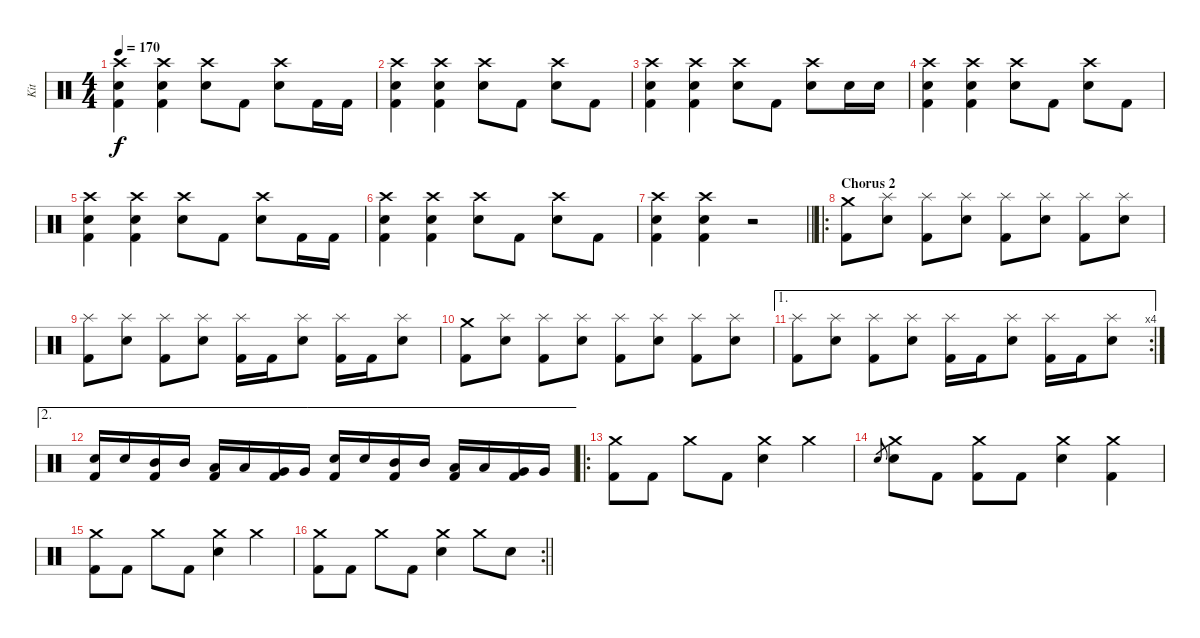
\track ("Kit" "Kit") {instrument percussion}
\staff {score}
\articulation defaults
\ts (4 4)
\tempo 170
\clef neutral
\ks c
("Crash high (hit)" "Electric Snare (hit)" "Kick (hit) 2").4{dy f} ("Crash high (hit)" "Electric Snare (hit)" "Kick (hit) 2").4 ("Crash high (hit)" "Electric Snare (hit)").8 "Kick (hit) 2".8 ("Crash high (hit)" "Electric Snare (hit)").8 "Kick (hit) 2".16 "Kick (hit) 2".16 |
("Crash high (hit)" "Electric Snare (hit)" "Kick (hit) 2").4 ("Crash high (hit)" "Electric Snare (hit)" "Kick (hit) 2").4 ("Crash high (hit)" "Electric Snare (hit)").8 "Kick (hit) 2".8 ("Crash high (hit)" "Electric Snare (hit)").8 "Kick (hit) 2".8 |
("Crash high (hit)" "Electric Snare (hit)" "Kick (hit) 2").4 ("Crash high (hit)" "Electric Snare (hit)" "Kick (hit) 2").4 ("Crash high (hit)" "Electric Snare (hit)").8 "Kick (hit) 2".8 ("Crash high (hit)" "Electric Snare (hit)").8 "Electric Snare (hit)".16 "Electric Snare (hit)".16 |
("Crash high (hit)" "Electric Snare (hit)" "Kick (hit) 2").4 ("Crash high (hit)" "Electric Snare (hit)" "Kick (hit) 2").4 ("Crash high (hit)" "Electric Snare (hit)").8 "Kick (hit) 2".8 ("Crash high (hit)" "Electric Snare (hit)").8 "Kick (hit) 2".8 |
("Crash high (hit)" "Electric Snare (hit)" "Kick (hit) 2").4 ("Crash high (hit)" "Electric Snare (hit)" "Kick (hit) 2").4 ("Crash high (hit)" "Electric Snare (hit)").8 "Kick (hit) 2".8 ("Crash high (hit)" "Electric Snare (hit)").8 "Kick (hit) 2".16 "Kick (hit) 2".16 |
("Crash high (hit)" "Electric Snare (hit)" "Kick (hit) 2").4 ("Crash high (hit)" "Electric Snare (hit)" "Kick (hit) 2").4 ("Crash high (hit)" "Electric Snare (hit)").8 "Kick (hit) 2".8 ("Crash high (hit)" "Electric Snare (hit)").8 "Kick (hit) 2".8 |
\barLineRight lightlight
("Crash high (hit)" "Electric Snare (hit)" "Kick (hit) 2").4 ("Crash high (hit)" "Electric Snare (hit)" "Kick (hit) 2").4 r.2 |
\ro
\section ("" "Chorus 2")
("Crash medium (hit)" "Kick (hit) 2").8 ("Splash (hit)" "Electric Snare (hit)").8 ("Splash (hit)" "Kick (hit) 2").8 ("Splash (hit)" "Electric Snare (hit)").8 ("Splash (hit)" "Kick (hit) 2").8 ("Splash (hit)" "Electric Snare (hit)").8 ("Splash (hit)" "Kick (hit) 2").8 ("Splash (hit)" "Electric Snare (hit)").8 |
("Splash (hit)" "Kick (hit) 2").8 ("Splash (hit)" "Electric Snare (hit)").8 ("Splash (hit)" "Kick (hit) 2").8 ("Splash (hit)" "Electric Snare (hit)").8 ("Splash (hit)" "Kick (hit) 2").16 "Kick (hit) 2".16 ("Splash (hit)" "Electric Snare (hit)").8 ("Splash (hit)" "Kick (hit) 2").16 "Kick (hit) 2".16 ("Splash (hit)" "Electric Snare (hit)").8 |
("Crash medium (hit)" "Kick (hit) 2").8 ("Splash (hit)" "Electric Snare (hit)").8 ("Splash (hit)" "Kick (hit) 2").8 ("Splash (hit)" "Electric Snare (hit)").8 ("Splash (hit)" "Kick (hit) 2").8 ("Splash (hit)" "Electric Snare (hit)").8 ("Splash (hit)" "Kick (hit) 2").8 ("Splash (hit)" "Electric Snare (hit)").8 |
\ae 1
\rc 4
("Splash (hit)" "Kick (hit) 2").8 ("Splash (hit)" "Electric Snare (hit)").8 ("Splash (hit)" "Kick (hit) 2").8 ("Splash (hit)" "Electric Snare (hit)").8 ("Splash (hit)" "Kick (hit) 2").16 "Kick (hit) 2".16 ("Splash (hit)" "Electric Snare (hit)").8 ("Splash (hit)" "Kick (hit) 2").16 "Kick (hit) 2".16 ("Splash (hit)" "Electric Snare (hit)").8 |
\ae 2
("Electric Snare (hit)" "Kick (hit) 2").16 "Electric Snare (hit)".16 ("Mid Tom (hit)" "Kick (hit) 2").16 "Mid Tom (hit)".16 ("Low Tom (hit)" "Kick (hit) 2").16 "Low Tom (hit)".16 ("Very Low Tom (hit)" "Kick (hit) 2").16 "Very Low Tom (hit)".16 ("Electric Snare (hit)" "Kick (hit) 2").16 "Electric Snare (hit)".16 ("Mid Tom (hit)" "Kick (hit) 2").16 "Mid Tom (hit)".16 ("Low Tom (hit)" "Kick (hit) 2").16 "Low Tom (hit)".16 ("Very Low Tom (hit)" "Kick (hit) 2").16 "Very Low Tom (hit)".16 |
\ro
("Crash medium (hit)" "Kick (hit) 2").8 "Kick (hit) 2".8 "Crash medium (hit)".8 "Kick (hit) 2".8 ("Crash medium (hit)" "Electric Snare (hit)").4 "Crash medium (hit)".4 |
"Electric Snare (hit)".8{gr} ("Crash medium (hit)" "Electric Snare (hit)").8 "Kick (hit) 2".8 ("Crash medium (hit)" "Kick (hit) 2").8 "Kick (hit) 2".8 ("Crash medium (hit)" "Electric Snare (hit)").4 ("Crash medium (hit)" "Kick (hit) 2").4 |
("Crash medium (hit)" "Kick (hit) 2").8 "Kick (hit) 2".8 "Crash medium (hit)".8 "Kick (hit) 2".8 ("Crash medium (hit)" "Electric Snare (hit)").4 "Crash medium (hit)".4 |
\rc 2
\barLineRight lightlight
("Crash medium (hit)" "Kick (hit) 2").8 "Kick (hit) 2".8 "Crash medium (hit)".8 "Kick (hit) 2".8 ("Crash medium (hit)" "Electric Snare (hit)").4 "Crash medium (hit)".8 "Electric Snare (hit)".8
